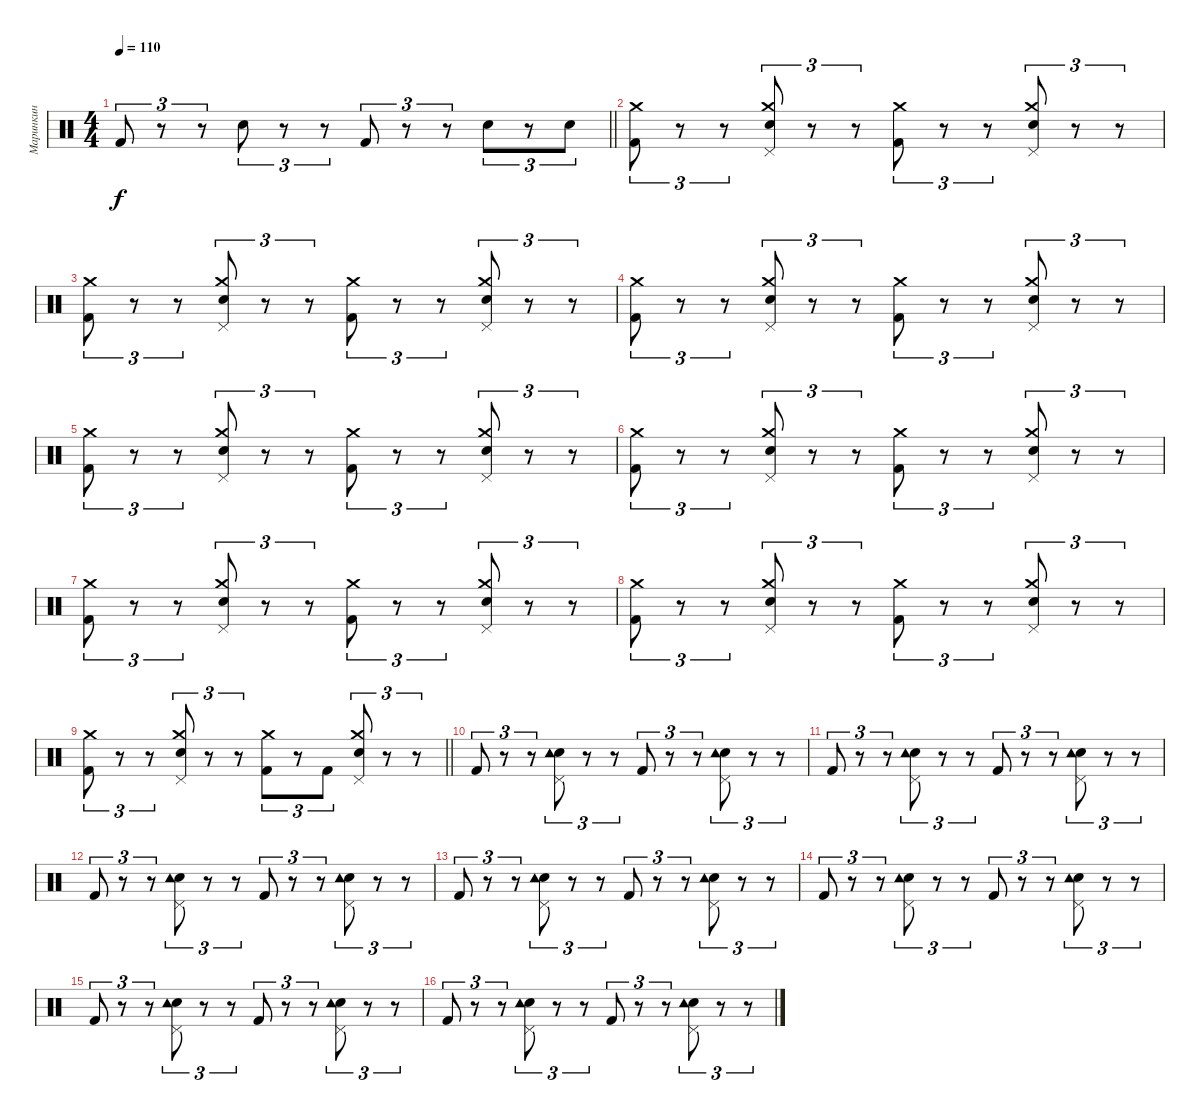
\track ("Маринкин " "Маринкин ") {instrument percussion}
\staff {score}
\articulation defaults
\ts (4 4)
\tempo 110
\clef neutral
\barLineRight lightlight
\ks c "Kick (hit) 2".8{tu (3 2) dy f}
r.8{tu (3 2)} r.8{tu (3 2)} "Snare (hit) 2".8{tu (3 2)} r.8{tu (3 2)} r.8{tu (3 2)} "Kick (hit) 2".8{tu (3 2)} r.8{tu (3 2)} r.8{tu (3 2)} "Snare (hit) 2".8{tu (3 2)} r.8{tu (3 2)} "Snare (hit) 2".8{tu (3 2)} |
("Kick (hit) 2" "Crash medium (hit)").8{tu (3 2)} r.8{tu (3 2)} r.8{tu (3 2)} ("Snare (hit) 2" "Crash medium (hit)" "Pedal Hi-Hat (hit)").8{tu (3 2)} r.8{tu (3 2)} r.8{tu (3 2)} ("Kick (hit) 2" "Crash medium (hit)").8{tu (3 2)} r.8{tu (3 2)} r.8{tu (3 2)} ("Snare (hit) 2" "Crash medium (hit)" "Pedal Hi-Hat (hit)").8{tu (3 2)} r.8{tu (3 2)} r.8{tu (3 2)} |
("Kick (hit) 2" "Crash medium (hit)").8{tu (3 2)} r.8{tu (3 2)} r.8{tu (3 2)} ("Snare (hit) 2" "Crash medium (hit)" "Pedal Hi-Hat (hit)").8{tu (3 2)} r.8{tu (3 2)} r.8{tu (3 2)} ("Kick (hit) 2" "Crash medium (hit)").8{tu (3 2)} r.8{tu (3 2)} r.8{tu (3 2)} ("Snare (hit) 2" "Crash medium (hit)" "Pedal Hi-Hat (hit)").8{tu (3 2)} r.8{tu (3 2)} r.8{tu (3 2)} |
("Kick (hit) 2" "Crash medium (hit)").8{tu (3 2)} r.8{tu (3 2)} r.8{tu (3 2)} ("Snare (hit) 2" "Crash medium (hit)" "Pedal Hi-Hat (hit)").8{tu (3 2)} r.8{tu (3 2)} r.8{tu (3 2)} ("Kick (hit) 2" "Crash medium (hit)").8{tu (3 2)} r.8{tu (3 2)} r.8{tu (3 2)} ("Snare (hit) 2" "Crash medium (hit)" "Pedal Hi-Hat (hit)").8{tu (3 2)} r.8{tu (3 2)} r.8{tu (3 2)} |
("Kick (hit) 2" "Crash medium (hit)").8{tu (3 2)} r.8{tu (3 2)} r.8{tu (3 2)} ("Snare (hit) 2" "Crash medium (hit)" "Pedal Hi-Hat (hit)").8{tu (3 2)} r.8{tu (3 2)} r.8{tu (3 2)} ("Kick (hit) 2" "Crash medium (hit)").8{tu (3 2)} r.8{tu (3 2)} r.8{tu (3 2)} ("Snare (hit) 2" "Crash medium (hit)" "Pedal Hi-Hat (hit)").8{tu (3 2)} r.8{tu (3 2)} r.8{tu (3 2)} |
("Kick (hit) 2" "Crash medium (hit)").8{tu (3 2)} r.8{tu (3 2)} r.8{tu (3 2)} ("Snare (hit) 2" "Crash medium (hit)" "Pedal Hi-Hat (hit)").8{tu (3 2)} r.8{tu (3 2)} r.8{tu (3 2)} ("Kick (hit) 2" "Crash medium (hit)").8{tu (3 2)} r.8{tu (3 2)} r.8{tu (3 2)} ("Snare (hit) 2" "Crash medium (hit)" "Pedal Hi-Hat (hit)").8{tu (3 2)} r.8{tu (3 2)} r.8{tu (3 2)} |
("Kick (hit) 2" "Crash medium (hit)").8{tu (3 2)} r.8{tu (3 2)} r.8{tu (3 2)} ("Snare (hit) 2" "Crash medium (hit)" "Pedal Hi-Hat (hit)").8{tu (3 2)} r.8{tu (3 2)} r.8{tu (3 2)} ("Kick (hit) 2" "Crash medium (hit)").8{tu (3 2)} r.8{tu (3 2)} r.8{tu (3 2)} ("Snare (hit) 2" "Crash medium (hit)" "Pedal Hi-Hat (hit)").8{tu (3 2)} r.8{tu (3 2)} r.8{tu (3 2)} |
("Kick (hit) 2" "Crash medium (hit)").8{tu (3 2)} r.8{tu (3 2)} r.8{tu (3 2)} ("Snare (hit) 2" "Crash medium (hit)" "Pedal Hi-Hat (hit)").8{tu (3 2)} r.8{tu (3 2)} r.8{tu (3 2)} ("Kick (hit) 2" "Crash medium (hit)").8{tu (3 2)} r.8{tu (3 2)} r.8{tu (3 2)} ("Snare (hit) 2" "Crash medium (hit)" "Pedal Hi-Hat (hit)").8{tu (3 2)} r.8{tu (3 2)} r.8{tu (3 2)} |
\barLineRight lightlight
("Kick (hit) 2" "Crash medium (hit)").8{tu (3 2)} r.8{tu (3 2)} r.8{tu (3 2)} ("Snare (hit) 2" "Crash medium (hit)" "Pedal Hi-Hat (hit)").8{tu (3 2)} r.8{tu (3 2)} r.8{tu (3 2)} ("Kick (hit) 2" "Crash medium (hit)").8{tu (3 2)} r.8{tu (3 2)} "Kick (hit) 2".8{tu (3 2)} ("Snare (hit) 2" "Crash medium (hit)" "Pedal Hi-Hat (hit)").8{tu (3 2)} r.8{tu (3 2)} r.8{tu (3 2)} |
"Kick (hit) 2".8{tu (3 2)} r.8{tu (3 2)} r.8{tu (3 2)} ("Snare (hit) 2" "Tambourine (hit)" "Pedal Hi-Hat (hit)").8{tu (3 2)} r.8{tu (3 2)} r.8{tu (3 2)} "Kick (hit) 2".8{tu (3 2)} r.8{tu (3 2)} r.8{tu (3 2)} ("Snare (hit) 2" "Tambourine (hit)" "Pedal Hi-Hat (hit)").8{tu (3 2)} r.8{tu (3 2)} r.8{tu (3 2)} |
"Kick (hit) 2".8{tu (3 2)} r.8{tu (3 2)} r.8{tu (3 2)} ("Snare (hit) 2" "Tambourine (hit)" "Pedal Hi-Hat (hit)").8{tu (3 2)} r.8{tu (3 2)} r.8{tu (3 2)} "Kick (hit) 2".8{tu (3 2)} r.8{tu (3 2)} r.8{tu (3 2)} ("Snare (hit) 2" "Tambourine (hit)" "Pedal Hi-Hat (hit)").8{tu (3 2)} r.8{tu (3 2)} r.8{tu (3 2)} |
"Kick (hit) 2".8{tu (3 2)} r.8{tu (3 2)} r.8{tu (3 2)} ("Snare (hit) 2" "Tambourine (hit)" "Pedal Hi-Hat (hit)").8{tu (3 2)} r.8{tu (3 2)} r.8{tu (3 2)} "Kick (hit) 2".8{tu (3 2)} r.8{tu (3 2)} r.8{tu (3 2)} ("Snare (hit) 2" "Tambourine (hit)" "Pedal Hi-Hat (hit)").8{tu (3 2)} r.8{tu (3 2)} r.8{tu (3 2)} |
"Kick (hit) 2".8{tu (3 2)} r.8{tu (3 2)} r.8{tu (3 2)} ("Snare (hit) 2" "Tambourine (hit)" "Pedal Hi-Hat (hit)").8{tu (3 2)} r.8{tu (3 2)} r.8{tu (3 2)} "Kick (hit) 2".8{tu (3 2)} r.8{tu (3 2)} r.8{tu (3 2)} ("Snare (hit) 2" "Tambourine (hit)" "Pedal Hi-Hat (hit)").8{tu (3 2)} r.8{tu (3 2)} r.8{tu (3 2)} |
"Kick (hit) 2".8{tu (3 2)} r.8{tu (3 2)} r.8{tu (3 2)} ("Snare (hit) 2" "Tambourine (hit)" "Pedal Hi-Hat (hit)").8{tu (3 2)} r.8{tu (3 2)} r.8{tu (3 2)} "Kick (hit) 2".8{tu (3 2)} r.8{tu (3 2)} r.8{tu (3 2)} ("Snare (hit) 2" "Tambourine (hit)" "Pedal Hi-Hat (hit)").8{tu (3 2)} r.8{tu (3 2)} r.8{tu (3 2)} |
"Kick (hit) 2".8{tu (3 2)} r.8{tu (3 2)} r.8{tu (3 2)} ("Snare (hit) 2" "Tambourine (hit)" "Pedal Hi-Hat (hit)").8{tu (3 2)} r.8{tu (3 2)} r.8{tu (3 2)} "Kick (hit) 2".8{tu (3 2)} r.8{tu (3 2)} r.8{tu (3 2)} ("Snare (hit) 2" "Tambourine (hit)" "Pedal Hi-Hat (hit)").8{tu (3 2)} r.8{tu (3 2)} r.8{tu (3 2)} |
"Kick (hit) 2".8{tu (3 2)} r.8{tu (3 2)} r.8{tu (3 2)} ("Snare (hit) 2" "Tambourine (hit)" "Pedal Hi-Hat (hit)").8{tu (3 2)} r.8{tu (3 2)} r.8{tu (3 2)} "Kick (hit) 2".8{tu (3 2)} r.8{tu (3 2)} r.8{tu (3 2)} ("Snare (hit) 2" "Tambourine (hit)" "Pedal Hi-Hat (hit)").8{tu (3 2)} r.8{tu (3 2)} r.8{tu (3 2)}
